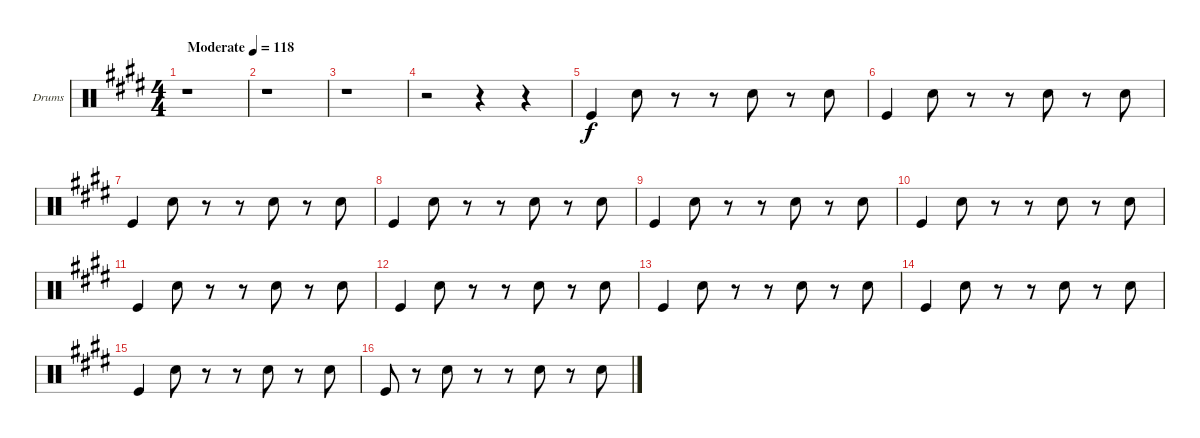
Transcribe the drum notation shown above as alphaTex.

\bracketExtendMode groupsimilarinstruments
\firstSystemTrackNameOrientation horizontal
\otherSystemsTrackNameOrientation horizontal
\track ("Drumkit" "Drums") {instrument percussion}
\staff {score}
\articulation defaults
\ts (4 4)
\beaming (8 2 2 2 2)
\tempo (118 "Moderate")
\clef neutral
\ks e
r.1{dy f} |
r.1 |
r.1 |
r.2 r.4 r.4 |
"Kick (hit)".4 "Snare (hit) 2".8 r.8 r.8 "Snare (hit) 2".8 r.8 "Snare (hit) 2".8 |
"Kick (hit)".4 "Snare (hit) 2".8 r.8 r.8 "Snare (hit) 2".8 r.8 "Snare (hit) 2".8 |
"Kick (hit)".4 "Snare (hit) 2".8 r.8 r.8 "Snare (hit) 2".8 r.8 "Snare (hit) 2".8 |
"Kick (hit)".4 "Snare (hit) 2".8 r.8 r.8 "Snare (hit) 2".8 r.8 "Snare (hit) 2".8 |
"Kick (hit)".4 "Snare (hit) 2".8 r.8 r.8 "Snare (hit) 2".8 r.8 "Snare (hit) 2".8 |
"Kick (hit)".4 "Snare (hit) 2".8 r.8 r.8 "Snare (hit) 2".8 r.8 "Snare (hit) 2".8 |
"Kick (hit)".4 "Snare (hit) 2".8 r.8 r.8 "Snare (hit) 2".8 r.8 "Snare (hit) 2".8 |
"Kick (hit)".4 "Snare (hit) 2".8 r.8 r.8 "Snare (hit) 2".8 r.8 "Snare (hit) 2".8 |
"Kick (hit)".4 "Snare (hit) 2".8 r.8 r.8 "Snare (hit) 2".8 r.8 "Snare (hit) 2".8 |
"Kick (hit)".4 "Snare (hit) 2".8 r.8 r.8 "Snare (hit) 2".8 r.8 "Snare (hit) 2".8 |
"Kick (hit)".4 "Snare (hit) 2".8 r.8 r.8 "Snare (hit) 2".8 r.8 "Snare (hit) 2".8 |
"Kick (hit)".8 r.8 "Snare (hit) 2".8 r.8 r.8 "Snare (hit) 2".8 r.8 "Snare (hit) 2".8
